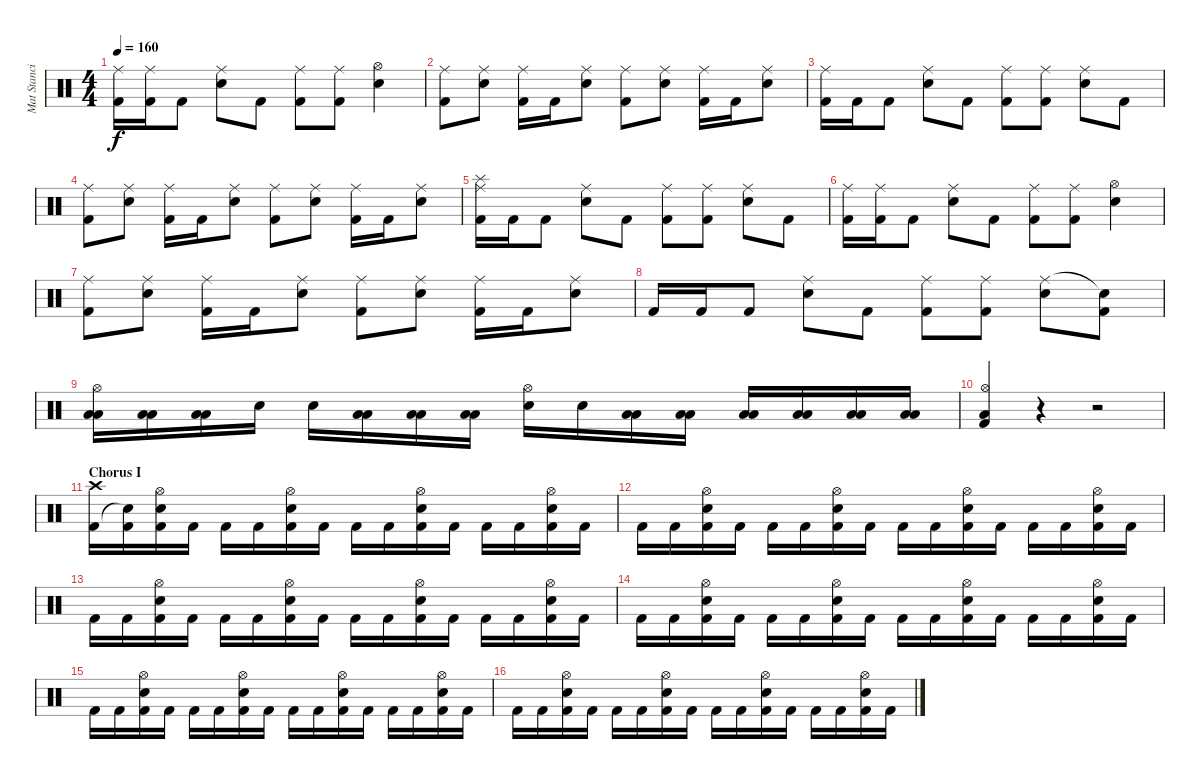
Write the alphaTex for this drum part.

\track ("Mat Stancioiu" "Mat Stanci") {instrument percussion}
\staff {score}
\articulation defaults
\ts (4 4)
\tempo 160
\clef neutral
\ks c
("Kick (hit) 2" "Ride (middle)").16{dy f} ("Kick (hit) 2" "Ride (middle)").16 "Kick (hit) 2".8 ("Electric Snare (hit)" "Ride (middle)").8 "Kick (hit) 2".8 ("Kick (hit) 2" "Ride (middle)").8 ("Kick (hit) 2" "Ride (middle)").8 ("Electric Snare (hit)" "Hi-Hat (open)").4 |
("Kick (hit) 2" "Ride (middle)").8 ("Electric Snare (hit)" "Ride (middle)").8 ("Kick (hit) 2" "Ride (middle)").16 "Kick (hit) 2".16 ("Electric Snare (hit)" "Ride (middle)").8 ("Kick (hit) 2" "Ride (middle)").8 ("Electric Snare (hit)" "Ride (middle)").8 ("Kick (hit) 2" "Ride (middle)").16 "Kick (hit) 2".16 ("Electric Snare (hit)" "Ride (middle)").8 |
("Kick (hit) 2" "Ride (middle)").16 "Kick (hit) 2".16 "Kick (hit) 2".8 ("Electric Snare (hit)" "Ride (middle)").8 "Kick (hit) 2".8 ("Kick (hit) 2" "Ride (middle)").8 ("Kick (hit) 2" "Ride (middle)").8 ("Electric Snare (hit)" "Ride (middle)").8 "Kick (hit) 2".8 |
("Kick (hit) 2" "Ride (middle)").8 ("Electric Snare (hit)" "Ride (middle)").8 ("Kick (hit) 2" "Ride (middle)").16 "Kick (hit) 2".16 ("Electric Snare (hit)" "Ride (middle)").8 ("Kick (hit) 2" "Ride (middle)").8 ("Electric Snare (hit)" "Ride (middle)").8 ("Kick (hit) 2" "Ride (middle)").16 "Kick (hit) 2".16 ("Electric Snare (hit)" "Ride (middle)").8 |
("Kick (hit) 2" "Ride (middle)" "Splash (hit)").16 "Kick (hit) 2".16 "Kick (hit) 2".8 ("Electric Snare (hit)" "Ride (middle)").8 "Kick (hit) 2".8 ("Kick (hit) 2" "Ride (middle)").8 ("Kick (hit) 2" "Ride (middle)").8 ("Electric Snare (hit)" "Ride (middle)").8 "Kick (hit) 2".8 |
("Kick (hit) 2" "Ride (middle)").16 ("Kick (hit) 2" "Ride (middle)").16 "Kick (hit) 2".8 ("Electric Snare (hit)" "Ride (middle)").8 "Kick (hit) 2".8 ("Kick (hit) 2" "Ride (middle)").8 ("Kick (hit) 2" "Ride (middle)").8 ("Electric Snare (hit)" "Hi-Hat (open)").4 |
("Kick (hit) 2" "Ride (middle)").8 ("Electric Snare (hit)" "Ride (middle)").8 ("Kick (hit) 2" "Ride (middle)").16 "Kick (hit) 2".16 ("Electric Snare (hit)" "Ride (middle)").8 ("Kick (hit) 2" "Ride (middle)").8 ("Electric Snare (hit)" "Ride (middle)").8 ("Kick (hit) 2" "Ride (middle)").16 "Kick (hit) 2".16 ("Electric Snare (hit)" "Ride (middle)").8 |
"Kick (hit) 2".16 "Kick (hit) 2".16 "Kick (hit) 2".8 ("Electric Snare (hit)" "Ride (middle)").8 "Kick (hit) 2".8 ("Kick (hit) 2" "Ride (middle)").8 ("Kick (hit) 2" "Ride (middle)").8 ("Electric Snare (hit)" "Ride (middle)").8 ("Kick (hit) 2" "Snare (hit)"{t}).8 |
("Low Tom (hit)" "Low Tom (hit)" "Hi-Hat (open)").16 ("Low Tom (hit)" "Low Tom (hit)").16 ("Low Tom (hit)" "Low Tom (hit)").16 "Electric Snare (hit)".16 "Electric Snare (hit)".16 ("Low Tom (hit)" "Low Tom (hit)").16 ("Low Tom (hit)" "Low Tom (hit)").16 ("Low Tom (hit)" "Low Tom (hit)").16 ("Electric Snare (hit)" "Hi-Hat (open)").16 "Electric Snare (hit)".16 ("Low Tom (hit)" "Low Tom (hit)").16 ("Low Tom (hit)" "Low Tom (hit)").16 ("Low Floor Tom (hit)" "Low Floor Tom (hit)").16 ("Low Floor Tom (hit)" "Low Floor Tom (hit)").16 ("Low Floor Tom (hit)" "Low Floor Tom (hit)").16 ("Low Floor Tom (hit)" "Low Floor Tom (hit)").16 |
("Kick (hit) 2" "Low Tom (hit)" "Hi-Hat (open)").4 r.4 r.2 |
\section ("" "Chorus I")
("Crash high (hit)" "Kick (hit) 2").16 ("Kick (hit) 2" "Snare (hit)"{t}).16 ("Electric Snare (hit)" "Kick (hit) 2" "Hi-Hat (open)").16 "Kick (hit) 2".16 "Kick (hit) 2".16 "Kick (hit) 2".16 ("Electric Snare (hit)" "Kick (hit) 2" "Hi-Hat (open)").16 "Kick (hit) 2".16 "Kick (hit) 2".16 "Kick (hit) 2".16 ("Electric Snare (hit)" "Kick (hit) 2" "Hi-Hat (open)").16 "Kick (hit) 2".16 "Kick (hit) 2".16 "Kick (hit) 2".16 ("Electric Snare (hit)" "Kick (hit) 2" "Hi-Hat (open)").16 "Kick (hit) 2".16 |
"Kick (hit) 2".16 "Kick (hit) 2".16 ("Electric Snare (hit)" "Kick (hit) 2" "Hi-Hat (open)").16 "Kick (hit) 2".16 "Kick (hit) 2".16 "Kick (hit) 2".16 ("Electric Snare (hit)" "Kick (hit) 2" "Hi-Hat (open)").16 "Kick (hit) 2".16 "Kick (hit) 2".16 "Kick (hit) 2".16 ("Electric Snare (hit)" "Kick (hit) 2" "Hi-Hat (open)").16 "Kick (hit) 2".16 "Kick (hit) 2".16 "Kick (hit) 2".16 ("Electric Snare (hit)" "Kick (hit) 2" "Hi-Hat (open)").16 "Kick (hit) 2".16 |
"Kick (hit) 2".16 "Kick (hit) 2".16 ("Electric Snare (hit)" "Kick (hit) 2" "Hi-Hat (open)").16 "Kick (hit) 2".16 "Kick (hit) 2".16 "Kick (hit) 2".16 ("Electric Snare (hit)" "Kick (hit) 2" "Hi-Hat (open)").16 "Kick (hit) 2".16 "Kick (hit) 2".16 "Kick (hit) 2".16 ("Electric Snare (hit)" "Kick (hit) 2" "Hi-Hat (open)").16 "Kick (hit) 2".16 "Kick (hit) 2".16 "Kick (hit) 2".16 ("Electric Snare (hit)" "Kick (hit) 2" "Hi-Hat (open)").16 "Kick (hit) 2".16 |
"Kick (hit) 2".16 "Kick (hit) 2".16 ("Electric Snare (hit)" "Kick (hit) 2" "Hi-Hat (open)").16 "Kick (hit) 2".16 "Kick (hit) 2".16 "Kick (hit) 2".16 ("Electric Snare (hit)" "Kick (hit) 2" "Hi-Hat (open)").16 "Kick (hit) 2".16 "Kick (hit) 2".16 "Kick (hit) 2".16 ("Electric Snare (hit)" "Kick (hit) 2" "Hi-Hat (open)").16 "Kick (hit) 2".16 "Kick (hit) 2".16 "Kick (hit) 2".16 ("Electric Snare (hit)" "Kick (hit) 2" "Hi-Hat (open)").16 "Kick (hit) 2".16 |
"Kick (hit) 2".16 "Kick (hit) 2".16 ("Electric Snare (hit)" "Kick (hit) 2" "Hi-Hat (open)").16 "Kick (hit) 2".16 "Kick (hit) 2".16 "Kick (hit) 2".16 ("Electric Snare (hit)" "Kick (hit) 2" "Hi-Hat (open)").16 "Kick (hit) 2".16 "Kick (hit) 2".16 "Kick (hit) 2".16 ("Electric Snare (hit)" "Kick (hit) 2" "Hi-Hat (open)").16 "Kick (hit) 2".16 "Kick (hit) 2".16 "Kick (hit) 2".16 ("Electric Snare (hit)" "Kick (hit) 2" "Hi-Hat (open)").16 "Kick (hit) 2".16 |
"Kick (hit) 2".16 "Kick (hit) 2".16 ("Electric Snare (hit)" "Kick (hit) 2" "Hi-Hat (open)").16 "Kick (hit) 2".16 "Kick (hit) 2".16 "Kick (hit) 2".16 ("Electric Snare (hit)" "Kick (hit) 2" "Hi-Hat (open)").16 "Kick (hit) 2".16 "Kick (hit) 2".16 "Kick (hit) 2".16 ("Electric Snare (hit)" "Kick (hit) 2" "Hi-Hat (open)").16 "Kick (hit) 2".16 "Kick (hit) 2".16 "Kick (hit) 2".16 ("Electric Snare (hit)" "Kick (hit) 2" "Hi-Hat (open)").16 "Kick (hit) 2".16
